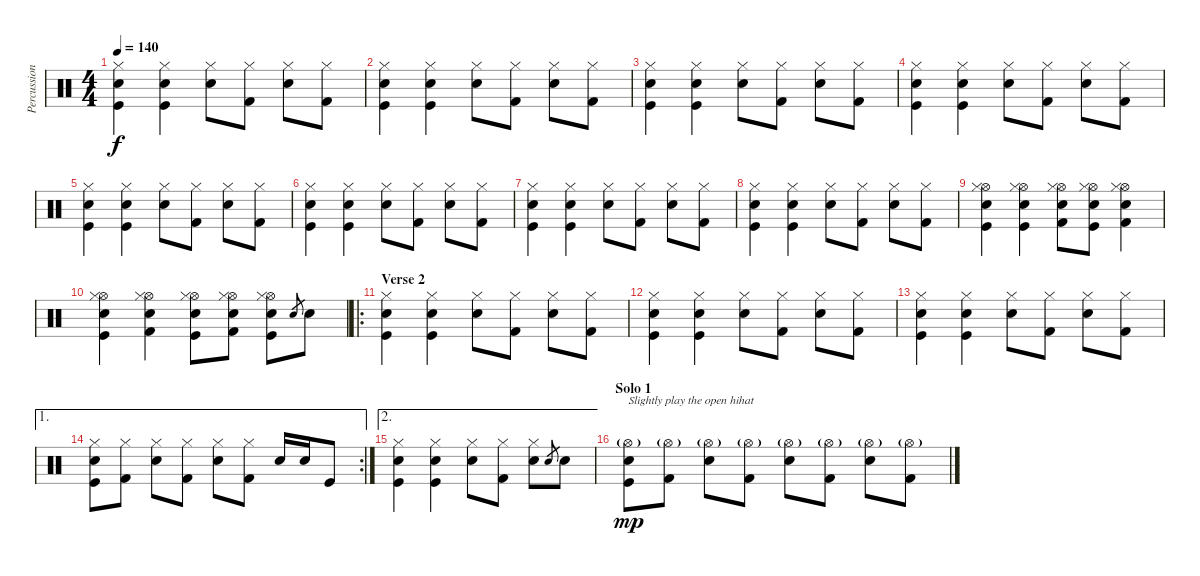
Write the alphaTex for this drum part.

\track ("Percussion" "Percussion") {instrument percussion}
\staff {score}
\articulation defaults
\ts (4 4)
\tempo 140
\clef neutral
\ks c
("Hi-Hat (closed)" "Snare (hit) 2" "Kick (hit)").4{dy f} ("Hi-Hat (closed)" "Snare (hit) 2" "Kick (hit)").4 ("Hi-Hat (closed)" "Snare (hit) 2").8 ("Hi-Hat (closed)" "Kick (hit) 2").8 ("Hi-Hat (closed)" "Snare (hit) 2").8 ("Hi-Hat (closed)" "Kick (hit) 2").8 |
("Hi-Hat (closed)" "Snare (hit) 2" "Kick (hit)").4 ("Hi-Hat (closed)" "Snare (hit) 2" "Kick (hit)").4 ("Hi-Hat (closed)" "Snare (hit) 2").8 ("Hi-Hat (closed)" "Kick (hit) 2").8 ("Hi-Hat (closed)" "Snare (hit) 2").8 ("Hi-Hat (closed)" "Kick (hit) 2").8 |
("Hi-Hat (closed)" "Snare (hit) 2" "Kick (hit)").4 ("Hi-Hat (closed)" "Snare (hit) 2" "Kick (hit)").4 ("Hi-Hat (closed)" "Snare (hit) 2").8 ("Hi-Hat (closed)" "Kick (hit) 2").8 ("Hi-Hat (closed)" "Snare (hit) 2").8 ("Hi-Hat (closed)" "Kick (hit) 2").8 |
("Hi-Hat (closed)" "Snare (hit) 2" "Kick (hit)").4 ("Hi-Hat (closed)" "Snare (hit) 2" "Kick (hit)").4 ("Hi-Hat (closed)" "Snare (hit) 2").8 ("Hi-Hat (closed)" "Kick (hit) 2").8 ("Hi-Hat (closed)" "Snare (hit) 2").8 ("Hi-Hat (closed)" "Kick (hit) 2").8 |
("Hi-Hat (closed)" "Snare (hit) 2" "Kick (hit)").4 ("Hi-Hat (closed)" "Snare (hit) 2" "Kick (hit)").4 ("Hi-Hat (closed)" "Snare (hit) 2").8 ("Hi-Hat (closed)" "Kick (hit) 2").8 ("Hi-Hat (closed)" "Snare (hit) 2").8 ("Hi-Hat (closed)" "Kick (hit) 2").8 |
("Hi-Hat (closed)" "Snare (hit) 2" "Kick (hit)").4 ("Hi-Hat (closed)" "Snare (hit) 2" "Kick (hit)").4 ("Hi-Hat (closed)" "Snare (hit) 2").8 ("Hi-Hat (closed)" "Kick (hit) 2").8 ("Hi-Hat (closed)" "Snare (hit) 2").8 ("Hi-Hat (closed)" "Kick (hit) 2").8 |
("Hi-Hat (closed)" "Snare (hit) 2" "Kick (hit)").4 ("Hi-Hat (closed)" "Snare (hit) 2" "Kick (hit)").4 ("Hi-Hat (closed)" "Snare (hit) 2").8 ("Hi-Hat (closed)" "Kick (hit) 2").8 ("Hi-Hat (closed)" "Snare (hit) 2").8 ("Hi-Hat (closed)" "Kick (hit) 2").8 |
("Hi-Hat (closed)" "Snare (hit) 2" "Kick (hit)").4 ("Hi-Hat (closed)" "Snare (hit) 2" "Kick (hit)").4 ("Hi-Hat (closed)" "Snare (hit) 2").8 ("Hi-Hat (closed)" "Kick (hit) 2").8 ("Hi-Hat (closed)" "Snare (hit) 2").8 ("Hi-Hat (closed)" "Kick (hit) 2").8 |
("Hi-Hat (open)" "Hi-Hat (closed)" "Snare (hit) 2" "Kick (hit)").4 ("Hi-Hat (open)" "Hi-Hat (closed)" "Snare (hit) 2" "Kick (hit)").4 ("Hi-Hat (open)" "Hi-Hat (closed)" "Snare (hit) 2" "Kick (hit) 2").8 ("Hi-Hat (open)" "Hi-Hat (closed)" "Snare (hit) 2" "Kick (hit)").8 ("Hi-Hat (open)" "Hi-Hat (closed)" "Snare (hit) 2" "Kick (hit) 2").4 |
("Hi-Hat (open)" "Hi-Hat (closed)" "Snare (hit) 2" "Kick (hit)").4 ("Hi-Hat (open)" "Hi-Hat (closed)" "Snare (hit) 2" "Kick (hit) 2").4 ("Hi-Hat (open)" "Hi-Hat (closed)" "Snare (hit) 2" "Kick (hit)").8 ("Hi-Hat (open)" "Hi-Hat (closed)" "Snare (hit) 2" "Kick (hit) 2").8 ("Hi-Hat (open)" "Hi-Hat (closed)" "Snare (hit) 2" "Kick (hit)").8 "Snare (hit) 2".8{gr} "Snare (hit) 2".8 |
\ro
\section ("" "Verse 2")
("Hi-Hat (closed)" "Snare (hit) 2" "Kick (hit)").4 ("Hi-Hat (closed)" "Snare (hit) 2" "Kick (hit)").4 ("Hi-Hat (closed)" "Snare (hit) 2").8 ("Hi-Hat (closed)" "Kick (hit) 2").8 ("Hi-Hat (closed)" "Snare (hit) 2").8 ("Hi-Hat (closed)" "Kick (hit) 2").8 |
("Hi-Hat (closed)" "Snare (hit) 2" "Kick (hit)").4 ("Hi-Hat (closed)" "Snare (hit) 2" "Kick (hit)").4 ("Hi-Hat (closed)" "Snare (hit) 2").8 ("Hi-Hat (closed)" "Kick (hit) 2").8 ("Hi-Hat (closed)" "Snare (hit) 2").8 ("Hi-Hat (closed)" "Kick (hit) 2").8 |
("Hi-Hat (closed)" "Snare (hit) 2" "Kick (hit)").4 ("Hi-Hat (closed)" "Snare (hit) 2" "Kick (hit)").4 ("Hi-Hat (closed)" "Snare (hit) 2").8 ("Hi-Hat (closed)" "Kick (hit) 2").8 ("Hi-Hat (closed)" "Snare (hit) 2").8 ("Hi-Hat (closed)" "Kick (hit) 2").8 |
\ae 1
\rc 2
("Hi-Hat (closed)" "Snare (hit) 2" "Kick (hit)").8 ("Hi-Hat (closed)" "Kick (hit) 2").8 ("Hi-Hat (closed)" "Snare (hit) 2").8 ("Hi-Hat (closed)" "Kick (hit) 2").8 ("Hi-Hat (closed)" "Snare (hit) 2").8 ("Hi-Hat (closed)" "Kick (hit) 2").8 "Snare (hit) 2".16 "Snare (hit) 2".16 "Kick (hit)".8 |
\ae 2
("Hi-Hat (closed)" "Snare (hit) 2" "Kick (hit)").4 ("Hi-Hat (closed)" "Snare (hit) 2" "Kick (hit)").4 ("Hi-Hat (closed)" "Snare (hit) 2").8 ("Hi-Hat (closed)" "Kick (hit) 2").8 ("Hi-Hat (closed)" "Snare (hit) 2").8 "Snare (hit) 2".8{gr} "Snare (hit) 2".8 |
\section ("" "Solo 1")
("Hi-Hat (open)"{g} "Snare (hit) 2" "Kick (hit)").8{txt "Slightly play the open hihat" dy mp} ("Hi-Hat (open)"{g} "Kick (hit) 2").8 ("Hi-Hat (open)"{g} "Snare (hit) 2").8 ("Hi-Hat (open)"{g} "Kick (hit) 2").8 ("Hi-Hat (open)"{g} "Snare (hit) 2").8 ("Hi-Hat (open)"{g} "Kick (hit) 2").8 ("Hi-Hat (open)"{g} "Snare (hit) 2").8 ("Hi-Hat (open)"{g} "Kick (hit) 2").8
